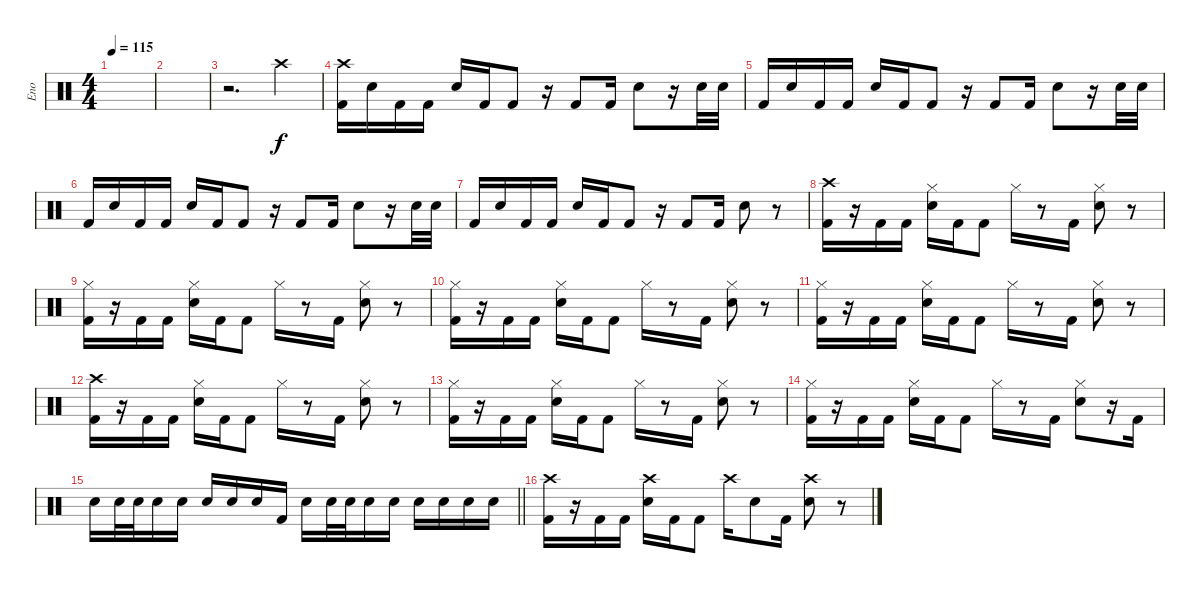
\track ("Eno" "Eno") {instrument percussion}
\staff {score}
\articulation defaults
\ts (4 4)
\tempo 115
\clef neutral
\ks c
|
|
r.2{d} "Crash high (hit)".4 |
("Kick (hit) 2" "Crash high (hit)").16 "Electric Snare (hit)".16 "Kick (hit) 2".16 "Kick (hit) 2".16 "Electric Snare (hit)".16 "Kick (hit) 2".16 "Kick (hit) 2".8 r.16 "Kick (hit) 2".8 "Kick (hit) 2".16 "Electric Snare (hit)".8 r.16 "Electric Snare (hit)".32 "Electric Snare (hit)".32 |
"Kick (hit) 2".16 "Electric Snare (hit)".16 "Kick (hit) 2".16 "Kick (hit) 2".16 "Electric Snare (hit)".16 "Kick (hit) 2".16 "Kick (hit) 2".8 r.16 "Kick (hit) 2".8 "Kick (hit) 2".16 "Electric Snare (hit)".8 r.16 "Electric Snare (hit)".32 "Electric Snare (hit)".32 |
"Kick (hit) 2".16 "Electric Snare (hit)".16 "Kick (hit) 2".16 "Kick (hit) 2".16 "Electric Snare (hit)".16 "Kick (hit) 2".16 "Kick (hit) 2".8 r.16 "Kick (hit) 2".8 "Kick (hit) 2".16 "Electric Snare (hit)".8 r.16 "Electric Snare (hit)".32 "Electric Snare (hit)".32 |
"Kick (hit) 2".16 "Electric Snare (hit)".16 "Kick (hit) 2".16 "Kick (hit) 2".16 "Electric Snare (hit)".16 "Kick (hit) 2".16 "Kick (hit) 2".8 r.16 "Kick (hit) 2".8 "Kick (hit) 2".16 "Electric Snare (hit)".8 r.8 |
("Kick (hit) 2" "Crash high (hit)").16 r.16 "Kick (hit) 2".16 "Kick (hit) 2".16 ("Electric Snare (hit)" "Hi-Hat (closed)").16 "Kick (hit) 2".16 "Kick (hit) 2".8 "Hi-Hat (closed)".16 r.8 "Kick (hit) 2".16 ("Electric Snare (hit)" "Hi-Hat (closed)").8 r.8 |
("Kick (hit) 2" "Hi-Hat (closed)").16 r.16 "Kick (hit) 2".16 "Kick (hit) 2".16 ("Electric Snare (hit)" "Hi-Hat (closed)").16 "Kick (hit) 2".16 "Kick (hit) 2".8 "Hi-Hat (closed)".16 r.8 "Kick (hit) 2".16 ("Electric Snare (hit)" "Hi-Hat (closed)").8 r.8 |
("Kick (hit) 2" "Hi-Hat (closed)").16 r.16 "Kick (hit) 2".16 "Kick (hit) 2".16 ("Electric Snare (hit)" "Hi-Hat (closed)").16 "Kick (hit) 2".16 "Kick (hit) 2".8 "Hi-Hat (closed)".16 r.8 "Kick (hit) 2".16 ("Electric Snare (hit)" "Hi-Hat (closed)").8 r.8 |
("Kick (hit) 2" "Hi-Hat (closed)").16 r.16 "Kick (hit) 2".16 "Kick (hit) 2".16 ("Electric Snare (hit)" "Hi-Hat (closed)").16 "Kick (hit) 2".16 "Kick (hit) 2".8 "Hi-Hat (closed)".16 r.8 "Kick (hit) 2".16 ("Electric Snare (hit)" "Hi-Hat (closed)").8 r.8 |
("Kick (hit) 2" "Crash high (hit)").16 r.16 "Kick (hit) 2".16 "Kick (hit) 2".16 ("Electric Snare (hit)" "Hi-Hat (closed)").16 "Kick (hit) 2".16 "Kick (hit) 2".8 "Hi-Hat (closed)".16 r.8 "Kick (hit) 2".16 ("Electric Snare (hit)" "Hi-Hat (closed)").8 r.8 |
("Kick (hit) 2" "Hi-Hat (closed)").16 r.16 "Kick (hit) 2".16 "Kick (hit) 2".16 ("Electric Snare (hit)" "Hi-Hat (closed)").16 "Kick (hit) 2".16 "Kick (hit) 2".8 "Hi-Hat (closed)".16 r.8 "Kick (hit) 2".16 ("Electric Snare (hit)" "Hi-Hat (closed)").8 r.8 |
("Kick (hit) 2" "Hi-Hat (closed)").16 r.16 "Kick (hit) 2".16 "Kick (hit) 2".16 ("Electric Snare (hit)" "Hi-Hat (closed)").16 "Kick (hit) 2".16 "Kick (hit) 2".8 "Hi-Hat (closed)".16 r.8 "Kick (hit) 2".16 ("Electric Snare (hit)" "Hi-Hat (closed)").8 r.16 "Kick (hit) 2".16 |
\barLineRight lightlight "Electric Snare (hit)".16 "Electric Snare (hit)".32 "Electric Snare (hit)".32 "Electric Snare (hit)".16 "Electric Snare (hit)".16 "Electric Snare (hit)".16 "Electric Snare (hit)".16 "Electric Snare (hit)".16 "Kick (hit) 2".16 "Electric Snare (hit)".16 "Electric Snare (hit)".32 "Electric Snare (hit)".32 "Electric Snare (hit)".16 "Electric Snare (hit)".16 "Electric Snare (hit)".16 "Electric Snare (hit)".16 "Electric Snare (hit)".16 "Electric Snare (hit)".16
|
("Kick (hit) 2" "Crash high (hit)").16 r.16 "Kick (hit) 2".16 "Kick (hit) 2".16 ("Electric Snare (hit)" "Crash high (hit)").16 "Kick (hit) 2".16 "Kick (hit) 2".8 "Crash high (hit)".16 "Electric Snare (hit)".8 "Kick (hit) 2".16 ("Electric Snare (hit)" "Crash high (hit)").8 r.8
